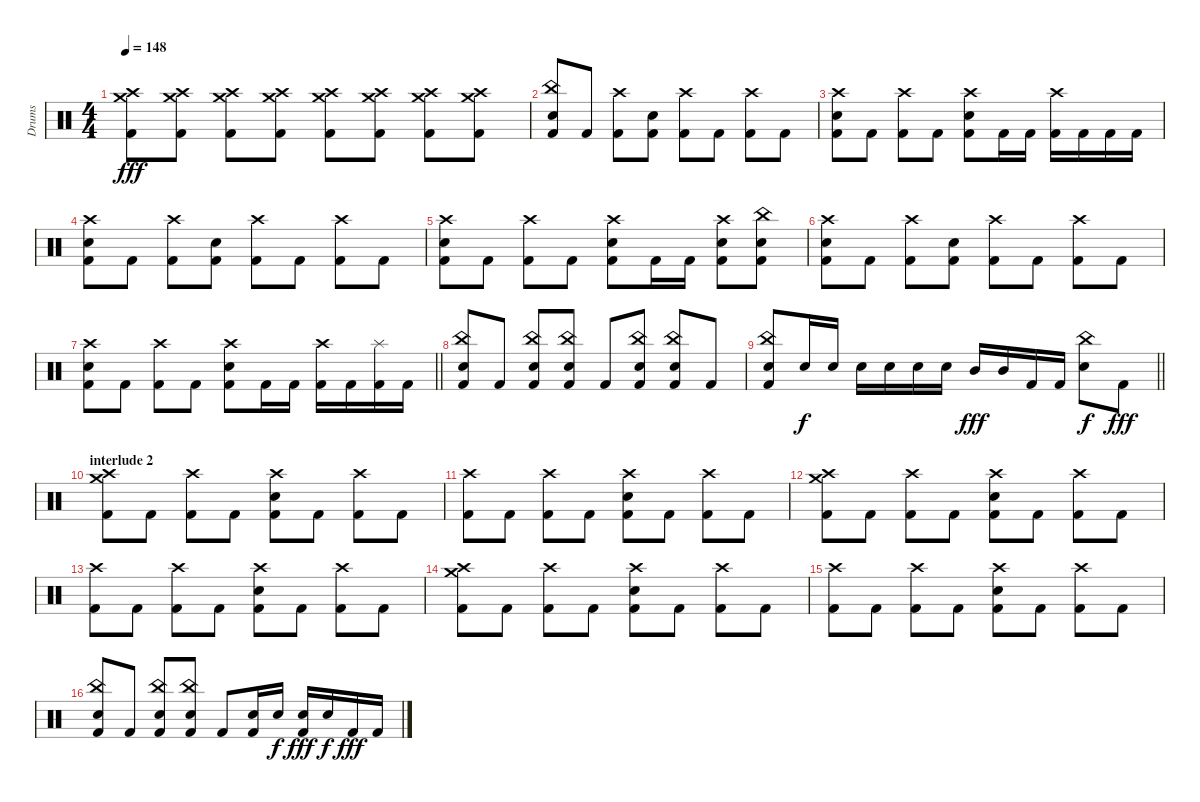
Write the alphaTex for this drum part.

\track ("Drums" "Drums") {instrument percussion}
\staff {score}
\articulation defaults
\ts (4 4)
\tempo 148
\clef neutral
\ks c
("Crash medium (hit)" "Crash high (hit)" "Kick (hit) 2").8{dy fff} ("Crash medium (hit)" "Crash high (hit)" "Kick (hit) 2").8 ("Crash medium (hit)" "Crash high (hit)" "Kick (hit) 2").8 ("Crash medium (hit)" "Crash high (hit)" "Kick (hit) 2").8 ("Crash medium (hit)" "Crash high (hit)" "Kick (hit) 2").8 ("Crash medium (hit)" "Crash high (hit)" "Kick (hit) 2").8 ("Crash medium (hit)" "Crash high (hit)" "Kick (hit) 2").8 ("Crash medium (hit)" "Crash high (hit)" "Kick (hit) 2").8 |
("China (hit)" "Electric Snare (hit)" "Kick (hit) 2").8 "Kick (hit) 2".8 ("Crash high (hit)" "Kick (hit) 2").8 ("Electric Snare (hit)" "Kick (hit) 2").8 ("Crash high (hit)" "Kick (hit) 2").8 "Kick (hit) 2".8 ("Crash high (hit)" "Kick (hit) 2").8 "Kick (hit) 2".8 |
("Crash high (hit)" "Electric Snare (hit)" "Kick (hit) 2").8 "Kick (hit) 2".8 ("Crash high (hit)" "Kick (hit) 2").8 "Kick (hit) 2".8 ("Crash high (hit)" "Electric Snare (hit)" "Kick (hit) 2").8 "Kick (hit) 2".16 "Kick (hit) 2".16 ("Crash high (hit)" "Kick (hit) 2").16 "Kick (hit) 2".16 "Kick (hit) 2".16 "Kick (hit) 2".16 |
("Crash high (hit)" "Electric Snare (hit)" "Kick (hit) 2").8 "Kick (hit) 2".8 ("Crash high (hit)" "Kick (hit) 2").8 ("Electric Snare (hit)" "Kick (hit) 2").8 ("Crash high (hit)" "Kick (hit) 2").8 "Kick (hit) 2".8 ("Crash high (hit)" "Kick (hit) 2").8 "Kick (hit) 2".8 |
("Crash high (hit)" "Electric Snare (hit)" "Kick (hit) 2").8 "Kick (hit) 2".8 ("Crash high (hit)" "Kick (hit) 2").8 "Kick (hit) 2".8 ("Crash high (hit)" "Electric Snare (hit)" "Kick (hit) 2").8 "Kick (hit) 2".16 "Kick (hit) 2".16 ("Crash high (hit)" "Electric Snare (hit)" "Kick (hit) 2").8 ("China (hit)" "Electric Snare (hit)" "Kick (hit) 2").8 |
("Crash high (hit)" "Electric Snare (hit)" "Kick (hit) 2").8 "Kick (hit) 2".8 ("Crash high (hit)" "Kick (hit) 2").8 ("Electric Snare (hit)" "Kick (hit) 2").8 ("Crash high (hit)" "Kick (hit) 2").8 "Kick (hit) 2".8 ("Crash high (hit)" "Kick (hit) 2").8 "Kick (hit) 2".8 |
\barLineRight lightlight
("Crash high (hit)" "Electric Snare (hit)" "Kick (hit) 2").8 "Kick (hit) 2".8 ("Crash high (hit)" "Kick (hit) 2").8 "Kick (hit) 2".8 ("Crash high (hit)" "Electric Snare (hit)" "Kick (hit) 2").8 "Kick (hit) 2".16 "Kick (hit) 2".16 ("Crash high (hit)" "Kick (hit) 2").16 "Kick (hit) 2".16 ("Splash (hit)" "Kick (hit) 2").16 "Kick (hit) 2".16 |
("China (hit)" "Electric Snare (hit)" "Kick (hit) 2").8 "Kick (hit) 2".8 ("China (hit)" "Electric Snare (hit)" "Kick (hit) 2").8 ("China (hit)" "Electric Snare (hit)" "Kick (hit) 2").8 "Kick (hit) 2".8 ("China (hit)" "Electric Snare (hit)" "Kick (hit) 2").8 ("China (hit)" "Electric Snare (hit)" "Kick (hit) 2").8 "Kick (hit) 2".8 |
\barLineRight lightlight
("China (hit)" "Electric Snare (hit)" "Kick (hit) 2").8 "Electric Snare (hit)".16{dy f} "Electric Snare (hit)".16 "Electric Snare (hit)".16 "Electric Snare (hit)".16 "Electric Snare (hit)".16 "Electric Snare (hit)".16 "Mid Tom (hit)".16{dy fff} "Mid Tom (hit)".16 "Kick (hit) 2".16 "Kick (hit) 2".16 ("China (hit)" "Electric Snare (hit)").8{dy f} "Kick (hit) 2".8{dy fff} |
\section ("" "interlude 2")
("Crash high (hit)" "Crash medium (hit)" "Kick (hit) 2").8 "Kick (hit) 2".8 ("Crash high (hit)" "Kick (hit) 2").8 "Kick (hit) 2".8 ("Crash high (hit)" "Electric Snare (hit)" "Kick (hit) 2").8 "Kick (hit) 2".8 ("Crash high (hit)" "Kick (hit) 2").8 "Kick (hit) 2".8 |
("Crash high (hit)" "Kick (hit) 2").8 "Kick (hit) 2".8 ("Crash high (hit)" "Kick (hit) 2").8 "Kick (hit) 2".8 ("Crash high (hit)" "Electric Snare (hit)" "Kick (hit) 2").8 "Kick (hit) 2".8 ("Crash high (hit)" "Kick (hit) 2").8 "Kick (hit) 2".8 |
("Crash high (hit)" "Crash medium (hit)" "Kick (hit) 2").8 "Kick (hit) 2".8 ("Crash high (hit)" "Kick (hit) 2").8 "Kick (hit) 2".8 ("Crash high (hit)" "Electric Snare (hit)" "Kick (hit) 2").8 "Kick (hit) 2".8 ("Crash high (hit)" "Kick (hit) 2").8 "Kick (hit) 2".8 |
("Crash high (hit)" "Kick (hit) 2").8 "Kick (hit) 2".8 ("Crash high (hit)" "Kick (hit) 2").8 "Kick (hit) 2".8 ("Crash high (hit)" "Electric Snare (hit)" "Kick (hit) 2").8 "Kick (hit) 2".8 ("Crash high (hit)" "Kick (hit) 2").8 "Kick (hit) 2".8 |
("Crash high (hit)" "Crash medium (hit)" "Kick (hit) 2").8 "Kick (hit) 2".8 ("Crash high (hit)" "Kick (hit) 2").8 "Kick (hit) 2".8 ("Crash high (hit)" "Electric Snare (hit)" "Kick (hit) 2").8 "Kick (hit) 2".8 ("Crash high (hit)" "Kick (hit) 2").8 "Kick (hit) 2".8 |
("Crash high (hit)" "Kick (hit) 2").8 "Kick (hit) 2".8 ("Crash high (hit)" "Kick (hit) 2").8 "Kick (hit) 2".8 ("Crash high (hit)" "Electric Snare (hit)" "Kick (hit) 2").8 "Kick (hit) 2".8 ("Crash high (hit)" "Kick (hit) 2").8 "Kick (hit) 2".8 |
("China (hit)" "Electric Snare (hit)" "Kick (hit) 2").8 "Kick (hit) 2".8 ("China (hit)" "Electric Snare (hit)" "Kick (hit) 2").8 ("China (hit)" "Electric Snare (hit)" "Kick (hit) 2").8 "Kick (hit) 2".8 ("Electric Snare (hit)" "Kick (hit) 2").16 "Electric Snare (hit)".16{dy f} ("Electric Snare (hit)" "Kick (hit) 2").16{dy fff} "Electric Snare (hit)".16{dy f} "Kick (hit) 2".16{dy fff} "Kick (hit) 2".16
